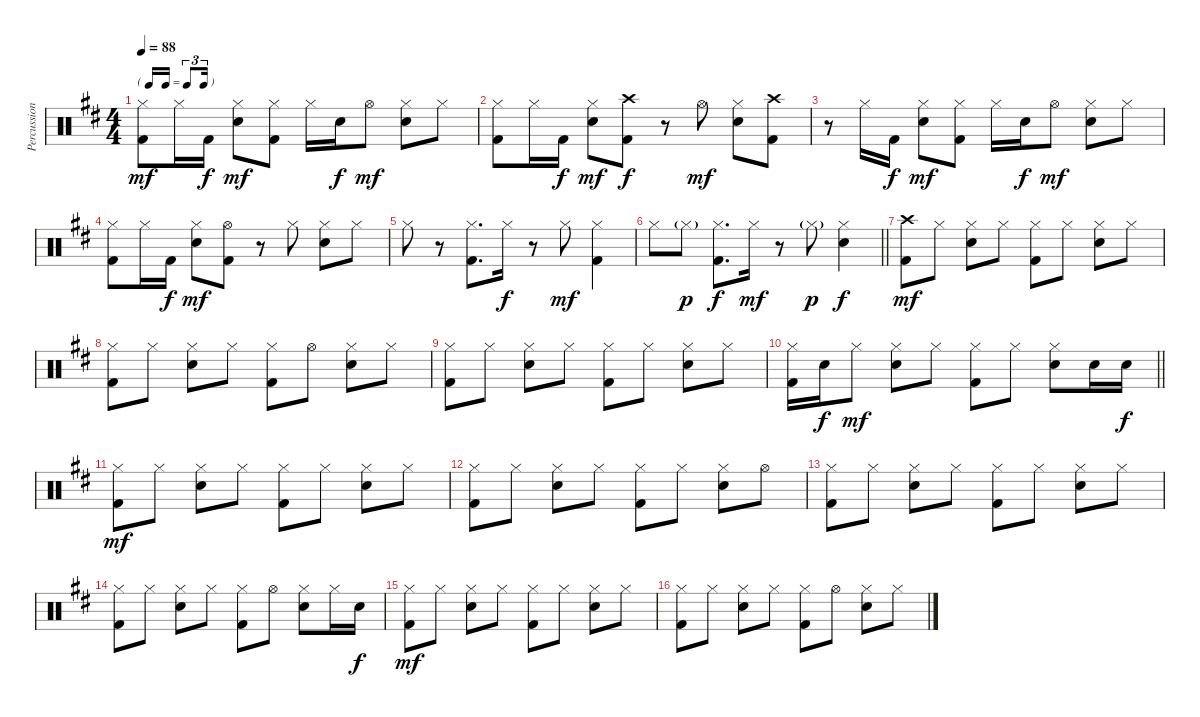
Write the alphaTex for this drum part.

\track ("Percussion" "Percussion") {instrument percussion}
\staff {score}
\articulation defaults
\ts (4 4)
\tf triplet16th
\tempo 88
\clef neutral
\ks d
("Hi-Hat (closed)" "Kick (hit) 2").8{dy mf} "Hi-Hat (closed)".16 "Kick (hit) 2".16{dy f} ("Hi-Hat (closed)" "Snare (hit) 2").8{dy mf} ("Hi-Hat (closed)" "Kick (hit) 2").8 "Hi-Hat (closed)".16 "Snare (hit) 2".16{dy f} "Hi-Hat (open)".8{dy mf} ("Hi-Hat (closed)" "Snare (hit) 2").8 "Hi-Hat (closed)".8 |
("Hi-Hat (closed)" "Kick (hit) 2").8 "Hi-Hat (closed)".16 "Kick (hit) 2".16{dy f} ("Hi-Hat (closed)" "Snare (hit) 2").8{dy mf} ("Crash high (hit)" "Kick (hit) 2").8{dy f} r.8 "Hi-Hat (open)".8{dy mf} ("Hi-Hat (closed)" "Snare (hit) 2").8 ("Crash high (hit)" "Kick (hit) 2").8 |
r.8 "Hi-Hat (closed)".16 "Kick (hit) 2".16{dy f} ("Hi-Hat (closed)" "Snare (hit) 2").8{dy mf} ("Hi-Hat (closed)" "Kick (hit) 2").8 "Hi-Hat (closed)".16 "Snare (hit) 2".16{dy f} "Hi-Hat (open)".8{dy mf} ("Hi-Hat (closed)" "Snare (hit) 2").8 "Hi-Hat (closed)".8 |
("Hi-Hat (closed)" "Kick (hit) 2").8 "Hi-Hat (closed)".16 "Kick (hit) 2".16{dy f} ("Hi-Hat (closed)" "Snare (hit) 2").8{dy mf} ("Hi-Hat (open)" "Kick (hit) 2").8 r.8 "Hi-Hat (closed)".8 ("Hi-Hat (closed)" "Snare (hit) 2").8 "Hi-Hat (closed)".8 |
"Hi-Hat (closed)".8 r.8 ("Hi-Hat (closed)" "Kick (hit) 2").8{d} "Hi-Hat (closed)".16{dy f} r.8 "Hi-Hat (closed)".8{dy mf} ("Hi-Hat (closed)" "Kick (hit) 2").4 |
\barLineRight lightlight "Hi-Hat (closed)".8 "Hi-Hat (closed)"{g}.8{dy p}
("Hi-Hat (closed)" "Kick (hit) 2").8{d dy f} "Hi-Hat (closed)".16{dy mf} r.8 "Hi-Hat (closed)"{g}.8{dy p} ("Hi-Hat (closed)" "Snare (hit) 2").4{dy f} |
("Crash high (hit)" "Kick (hit) 2").8{dy mf} "Hi-Hat (closed)".8 ("Hi-Hat (closed)" "Snare (hit) 2").8 "Hi-Hat (closed)".8 ("Hi-Hat (closed)" "Kick (hit) 2").8 "Hi-Hat (closed)".8 ("Hi-Hat (closed)" "Snare (hit) 2").8 "Hi-Hat (closed)".8 |
("Hi-Hat (closed)" "Kick (hit) 2").8 "Hi-Hat (closed)".8 ("Hi-Hat (closed)" "Snare (hit) 2").8 "Hi-Hat (closed)".8 ("Hi-Hat (closed)" "Kick (hit) 2").8 "Hi-Hat (open)".8 ("Hi-Hat (closed)" "Snare (hit) 2").8 "Hi-Hat (closed)".8 |
("Hi-Hat (closed)" "Kick (hit) 2").8 "Hi-Hat (closed)".8 ("Hi-Hat (closed)" "Snare (hit) 2").8 "Hi-Hat (closed)".8 ("Hi-Hat (closed)" "Kick (hit) 2").8 "Hi-Hat (closed)".8 ("Hi-Hat (closed)" "Snare (hit) 2").8 "Hi-Hat (closed)".8 |
\barLineRight lightlight
("Hi-Hat (closed)" "Kick (hit) 2").16 "Snare (hit) 2".16{dy f} "Hi-Hat (closed)".8{dy mf} ("Hi-Hat (closed)" "Snare (hit) 2").8 "Hi-Hat (closed)".8 ("Hi-Hat (closed)" "Kick (hit) 2").8 "Hi-Hat (closed)".8 ("Hi-Hat (closed)" "Snare (hit) 2").8 "Snare (hit) 2".16 "Snare (hit) 2".16{dy f} |
("Hi-Hat (closed)" "Kick (hit) 2").8{dy mf} "Hi-Hat (closed)".8 ("Hi-Hat (closed)" "Snare (hit) 2").8 "Hi-Hat (closed)".8 ("Hi-Hat (closed)" "Kick (hit) 2").8 "Hi-Hat (closed)".8 ("Hi-Hat (closed)" "Snare (hit) 2").8 "Hi-Hat (closed)".8 |
("Hi-Hat (closed)" "Kick (hit) 2").8 "Hi-Hat (closed)".8 ("Hi-Hat (closed)" "Snare (hit) 2").8 "Hi-Hat (closed)".8 ("Hi-Hat (closed)" "Kick (hit) 2").8 "Hi-Hat (closed)".8 ("Hi-Hat (closed)" "Snare (hit) 2").8 "Hi-Hat (open)".8 |
("Hi-Hat (closed)" "Kick (hit) 2").8 "Hi-Hat (closed)".8 ("Hi-Hat (closed)" "Snare (hit) 2").8 "Hi-Hat (closed)".8 ("Hi-Hat (closed)" "Kick (hit) 2").8 "Hi-Hat (closed)".8 ("Hi-Hat (closed)" "Snare (hit) 2").8 "Hi-Hat (closed)".8 |
("Hi-Hat (closed)" "Kick (hit) 2").8 "Hi-Hat (closed)".8 ("Hi-Hat (closed)" "Snare (hit) 2").8 "Hi-Hat (closed)".8 ("Hi-Hat (closed)" "Kick (hit) 2").8 "Hi-Hat (open)".8 ("Hi-Hat (closed)" "Snare (hit) 2").8 "Hi-Hat (closed)".16 "Snare (hit) 2".16{dy f} |
("Hi-Hat (closed)" "Kick (hit) 2").8{dy mf} "Hi-Hat (closed)".8 ("Hi-Hat (closed)" "Snare (hit) 2").8 "Hi-Hat (closed)".8 ("Hi-Hat (closed)" "Kick (hit) 2").8 "Hi-Hat (closed)".8 ("Hi-Hat (closed)" "Snare (hit) 2").8 "Hi-Hat (closed)".8 |
("Hi-Hat (closed)" "Kick (hit) 2").8 "Hi-Hat (closed)".8 ("Hi-Hat (closed)" "Snare (hit) 2").8 "Hi-Hat (closed)".8 ("Hi-Hat (closed)" "Kick (hit) 2").8 "Hi-Hat (open)".8 ("Hi-Hat (closed)" "Snare (hit) 2").8 "Hi-Hat (closed)".8
